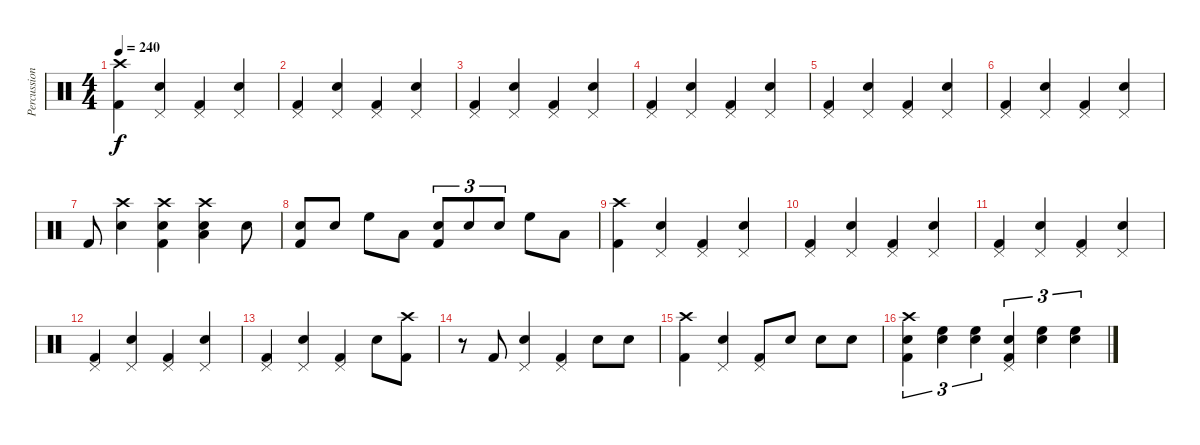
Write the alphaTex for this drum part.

\track ("Percussion" "Percussion") {instrument percussion}
\staff {score}
\articulation defaults
\ts (4 4)
\tempo 240
\clef neutral
\ks c
("Crash high (hit)" "Kick (hit) 2").4{dy f} ("Pedal Hi-Hat (hit)" "Electric Snare (hit)").4 ("Pedal Hi-Hat (hit)" "Kick (hit) 2").4 ("Pedal Hi-Hat (hit)" "Electric Snare (hit)").4 |
("Pedal Hi-Hat (hit)" "Kick (hit) 2").4 ("Pedal Hi-Hat (hit)" "Electric Snare (hit)").4 ("Pedal Hi-Hat (hit)" "Kick (hit) 2").4 ("Pedal Hi-Hat (hit)" "Electric Snare (hit)").4 |
("Pedal Hi-Hat (hit)" "Kick (hit) 2").4 ("Pedal Hi-Hat (hit)" "Electric Snare (hit)").4 ("Pedal Hi-Hat (hit)" "Kick (hit) 2").4 ("Pedal Hi-Hat (hit)" "Electric Snare (hit)").4 |
("Pedal Hi-Hat (hit)" "Kick (hit) 2").4 ("Pedal Hi-Hat (hit)" "Electric Snare (hit)").4 ("Pedal Hi-Hat (hit)" "Kick (hit) 2").4 ("Pedal Hi-Hat (hit)" "Electric Snare (hit)").4 |
("Pedal Hi-Hat (hit)" "Kick (hit) 2").4 ("Pedal Hi-Hat (hit)" "Electric Snare (hit)").4 ("Pedal Hi-Hat (hit)" "Kick (hit) 2").4 ("Pedal Hi-Hat (hit)" "Electric Snare (hit)").4 |
("Pedal Hi-Hat (hit)" "Kick (hit) 2").4 ("Pedal Hi-Hat (hit)" "Electric Snare (hit)").4 ("Pedal Hi-Hat (hit)" "Kick (hit) 2").4 ("Pedal Hi-Hat (hit)" "Electric Snare (hit)").4 |
"Kick (hit) 2".8 ("Crash high (hit)" "Electric Snare (hit)").4 ("Crash high (hit)" "Electric Snare (hit)" "Kick (hit) 2").4 ("Crash high (hit)" "Low Tom (hit)" "Electric Snare (hit)").4 "Electric Snare (hit)".8 |
("Electric Snare (hit)" "Kick (hit) 2").8 "Electric Snare (hit)".8 "High Floor Tom (hit)".8 "Low Tom (hit)".8 ("Electric Snare (hit)" "Kick (hit) 2").8{tu (3 2)} "Electric Snare (hit)".8{tu (3 2)} "Electric Snare (hit)".8{tu (3 2)} "High Floor Tom (hit)".8 "Low Tom (hit)".8 |
("Crash high (hit)" "Kick (hit) 2").4 ("Pedal Hi-Hat (hit)" "Electric Snare (hit)").4 ("Pedal Hi-Hat (hit)" "Kick (hit) 2").4 ("Pedal Hi-Hat (hit)" "Electric Snare (hit)").4 |
("Pedal Hi-Hat (hit)" "Kick (hit) 2").4 ("Pedal Hi-Hat (hit)" "Electric Snare (hit)").4 ("Pedal Hi-Hat (hit)" "Kick (hit) 2").4 ("Pedal Hi-Hat (hit)" "Electric Snare (hit)").4 |
("Pedal Hi-Hat (hit)" "Kick (hit) 2").4 ("Pedal Hi-Hat (hit)" "Electric Snare (hit)").4 ("Pedal Hi-Hat (hit)" "Kick (hit) 2").4 ("Pedal Hi-Hat (hit)" "Electric Snare (hit)").4 |
("Pedal Hi-Hat (hit)" "Kick (hit) 2").4 ("Pedal Hi-Hat (hit)" "Electric Snare (hit)").4 ("Pedal Hi-Hat (hit)" "Kick (hit) 2").4 ("Pedal Hi-Hat (hit)" "Electric Snare (hit)").4 |
("Pedal Hi-Hat (hit)" "Kick (hit) 2").4 ("Pedal Hi-Hat (hit)" "Electric Snare (hit)").4 ("Pedal Hi-Hat (hit)" "Kick (hit) 2").4 "Electric Snare (hit)".8 ("Crash high (hit)" "Kick (hit) 2").8 |
r.8 "Kick (hit) 2".8 ("Pedal Hi-Hat (hit)" "Electric Snare (hit)").4 ("Pedal Hi-Hat (hit)" "Kick (hit) 2").4 "Electric Snare (hit)".8 "Electric Snare (hit)".8 |
("Crash high (hit)" "Kick (hit) 2").4 ("Pedal Hi-Hat (hit)" "Electric Snare (hit)").4 ("Pedal Hi-Hat (hit)" "Kick (hit) 2").8 "Electric Snare (hit)".8 "Electric Snare (hit)".8 "Electric Snare (hit)".8 |
("Crash high (hit)" "Electric Snare (hit)" "Kick (hit) 2").4{tu (3 2)} ("High Floor Tom (hit)" "Electric Snare (hit)").4{tu (3 2)} ("High Floor Tom (hit)" "Electric Snare (hit)").4{tu (3 2)} ("Pedal Hi-Hat (hit)" "Electric Snare (hit)" "Kick (hit) 2").4{tu (3 2)} ("High Floor Tom (hit)" "Electric Snare (hit)").4{tu (3 2)} ("High Floor Tom (hit)" "Electric Snare (hit)").4{tu (3 2)}
